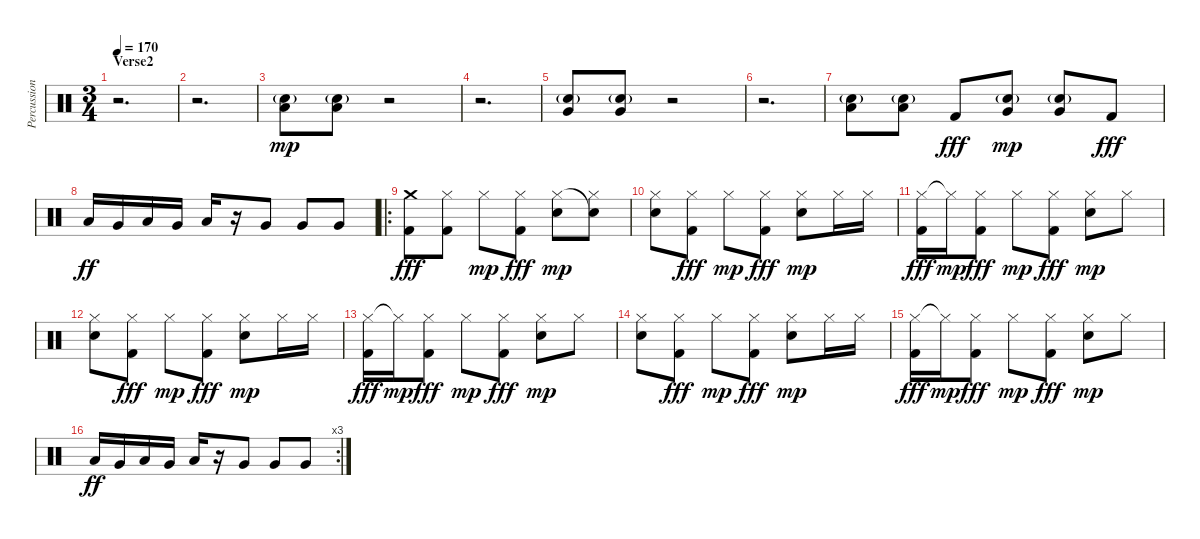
\track ("Percussion" "Percussion") {instrument percussion}
\staff {score}
\articulation defaults
\ts (3 4)
\section ("" "Verse2")
\tempo 170
\clef neutral
\ks c
r.2{d dy fff} |
r.2{d} |
("Low Tom (hit)" "Electric Snare (hit)"{g}).8{dy mp} ("Low Tom (hit)" "Electric Snare (hit)"{g}).8 r.2 |
r.2{d} |
("Very Low Tom (hit)" "Electric Snare (hit)"{g}).8 ("Very Low Tom (hit)" "Electric Snare (hit)"{g}).8 r.2 |
r.2{d} |
("Low Tom (hit)" "Electric Snare (hit)"{g}).8 ("Low Tom (hit)" "Electric Snare (hit)"{g}).8 "Kick (hit) 2".8{dy fff} ("Very Low Tom (hit)" "Electric Snare (hit)"{g}).8{dy mp} ("Very Low Tom (hit)" "Electric Snare (hit)"{g}).8 "Kick (hit) 2".8{dy fff} |
"Low Tom (hit)".16{dy ff} "Very Low Tom (hit)".16 "Low Tom (hit)".16 "Very Low Tom (hit)".16 "Low Tom (hit)".16 r.16 "Very Low Tom (hit)".8 "Very Low Tom (hit)".8 "Very Low Tom (hit)".8 |
\ro
("Crash medium (hit)" "Kick (hit) 2").8{dy fff} ("Hi-Hat (closed)" "Kick (hit) 2").8 "Hi-Hat (closed)".8{dy mp} ("Hi-Hat (closed)" "Kick (hit) 2").8{dy fff} ("Hi-Hat (closed)" "Electric Snare (hit)").8{dy mp} ("Snare (hit)"{t} "Hi-Hat (closed)").8 |
("Hi-Hat (closed)" "Electric Snare (hit)").8 ("Hi-Hat (closed)" "Kick (hit) 2").8{dy fff} "Hi-Hat (closed)".8{dy mp} ("Hi-Hat (closed)" "Kick (hit) 2").8{dy fff} ("Hi-Hat (closed)" "Electric Snare (hit)").8{dy mp} "Hi-Hat (closed)".16 "Hi-Hat (closed)".16 |
("Hi-Hat (closed)" "Kick (hit) 2").16{dy fff} "Hi-Hat (closed)"{t}.16{dy mp} ("Hi-Hat (closed)" "Kick (hit) 2").8{dy fff} "Hi-Hat (closed)".8{dy mp} ("Hi-Hat (closed)" "Kick (hit) 2").8{dy fff} ("Hi-Hat (closed)" "Electric Snare (hit)").8{dy mp} "Hi-Hat (closed)".8 |
("Hi-Hat (closed)" "Electric Snare (hit)").8 ("Hi-Hat (closed)" "Kick (hit) 2").8{dy fff} "Hi-Hat (closed)".8{dy mp} ("Hi-Hat (closed)" "Kick (hit) 2").8{dy fff} ("Hi-Hat (closed)" "Electric Snare (hit)").8{dy mp} "Hi-Hat (closed)".16 "Hi-Hat (closed)".16 |
("Hi-Hat (closed)" "Kick (hit) 2").16{dy fff} "Hi-Hat (closed)"{t}.16{dy mp} ("Hi-Hat (closed)" "Kick (hit) 2").8{dy fff} "Hi-Hat (closed)".8{dy mp} ("Hi-Hat (closed)" "Kick (hit) 2").8{dy fff} ("Hi-Hat (closed)" "Electric Snare (hit)").8{dy mp} "Hi-Hat (closed)".8 |
("Hi-Hat (closed)" "Electric Snare (hit)").8 ("Hi-Hat (closed)" "Kick (hit) 2").8{dy fff} "Hi-Hat (closed)".8{dy mp} ("Hi-Hat (closed)" "Kick (hit) 2").8{dy fff} ("Hi-Hat (closed)" "Electric Snare (hit)").8{dy mp} "Hi-Hat (closed)".16 "Hi-Hat (closed)".16 |
("Hi-Hat (closed)" "Kick (hit) 2").16{dy fff} "Hi-Hat (closed)"{t}.16{dy mp} ("Hi-Hat (closed)" "Kick (hit) 2").8{dy fff} "Hi-Hat (closed)".8{dy mp} ("Hi-Hat (closed)" "Kick (hit) 2").8{dy fff} ("Hi-Hat (closed)" "Electric Snare (hit)").8{dy mp} "Hi-Hat (closed)".8 |
\rc 3 "Low Tom (hit)".16{dy ff} "Very Low Tom (hit)".16 "Low Tom (hit)".16 "Very Low Tom (hit)".16 "Low Tom (hit)".16
r.16 "Very Low Tom (hit)".8 "Very Low Tom (hit)".8 "Very Low Tom (hit)".8
